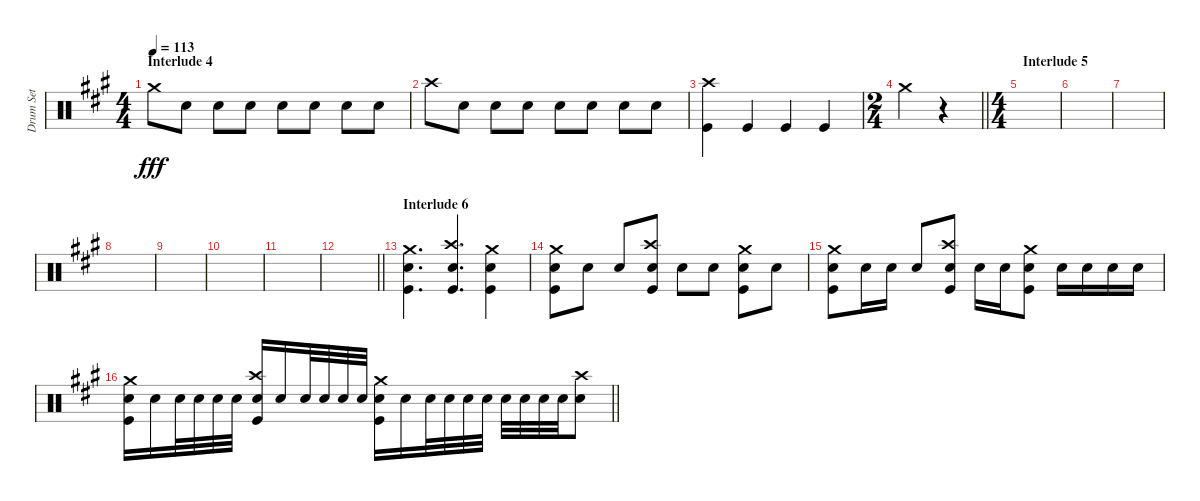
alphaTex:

\track ("Drum Set" "Drum Set") {instrument percussion}
\staff {score}
\articulation defaults
\ts (4 4)
\section ("" "Interlude 4")
\tempo 113
\clef neutral
\ks a "Crash medium (hit)".8{dy fff} "Electric Snare (hit)".8 "Electric Snare (hit)".8 "Electric Snare (hit)".8 "Electric Snare (hit)".8 "Electric Snare (hit)".8 "Electric Snare (hit)".8 "Electric Snare (hit)".8
|
"Crash high (hit)".8 "Electric Snare (hit)".8 "Electric Snare (hit)".8 "Electric Snare (hit)".8 "Electric Snare (hit)".8 "Electric Snare (hit)".8 "Electric Snare (hit)".8 "Electric Snare (hit)".8 |
("Crash high (hit)" "Kick (hit)").4 "Kick (hit)".4 "Kick (hit)".4 "Kick (hit)".4 |
\ts (2 4)
\barLineRight lightlight "Crash medium (hit)".4
r.4 |
\ts (4 4)
\section ("" "Interlude 5")
|
|
|
|
|
|
|
\barLineRight lightlight
|
\section ("" "Interlude 6")
("Crash medium (hit)" "Kick (hit)" "Electric Snare (hit)").4{d} ("Crash high (hit)" "Kick (hit)" "Electric Snare (hit)").4{d} ("Crash medium (hit)" "Kick (hit)" "Electric Snare (hit)").4 |
("Crash medium (hit)" "Kick (hit)" "Electric Snare (hit)").8 "Electric Snare (hit)".8 "Electric Snare (hit)".8 ("Crash high (hit)" "Kick (hit)" "Electric Snare (hit)").8 "Electric Snare (hit)".8 "Electric Snare (hit)".8 ("Crash medium (hit)" "Kick (hit)" "Electric Snare (hit)").8 "Electric Snare (hit)".8 |
("Crash medium (hit)" "Kick (hit)" "Electric Snare (hit)").8 "Electric Snare (hit)".16 "Electric Snare (hit)".16 "Electric Snare (hit)".8 ("Crash high (hit)" "Kick (hit)" "Electric Snare (hit)").8 "Electric Snare (hit)".16 "Electric Snare (hit)".16 ("Crash medium (hit)" "Kick (hit)" "Electric Snare (hit)").8 "Electric Snare (hit)".16 "Electric Snare (hit)".16 "Electric Snare (hit)".16 "Electric Snare (hit)".16 |
\barLineRight lightlight
("Crash medium (hit)" "Kick (hit)" "Electric Snare (hit)").16 "Electric Snare (hit)".16 "Electric Snare (hit)".32 "Electric Snare (hit)".32 "Electric Snare (hit)".32 "Electric Snare (hit)".32 ("Crash high (hit)" "Kick (hit)" "Electric Snare (hit)").16 "Electric Snare (hit)".16 "Electric Snare (hit)".32 "Electric Snare (hit)".32 "Electric Snare (hit)".32 "Electric Snare (hit)".32 ("Crash medium (hit)" "Kick (hit)" "Electric Snare (hit)").16 "Electric Snare (hit)".16 "Electric Snare (hit)".32 "Electric Snare (hit)".32 "Electric Snare (hit)".32 "Electric Snare (hit)".32 "Electric Snare (hit)".32 "Electric Snare (hit)".32 "Electric Snare (hit)".32 "Electric Snare (hit)".32 ("Crash high (hit)" "Electric Snare (hit)").8
